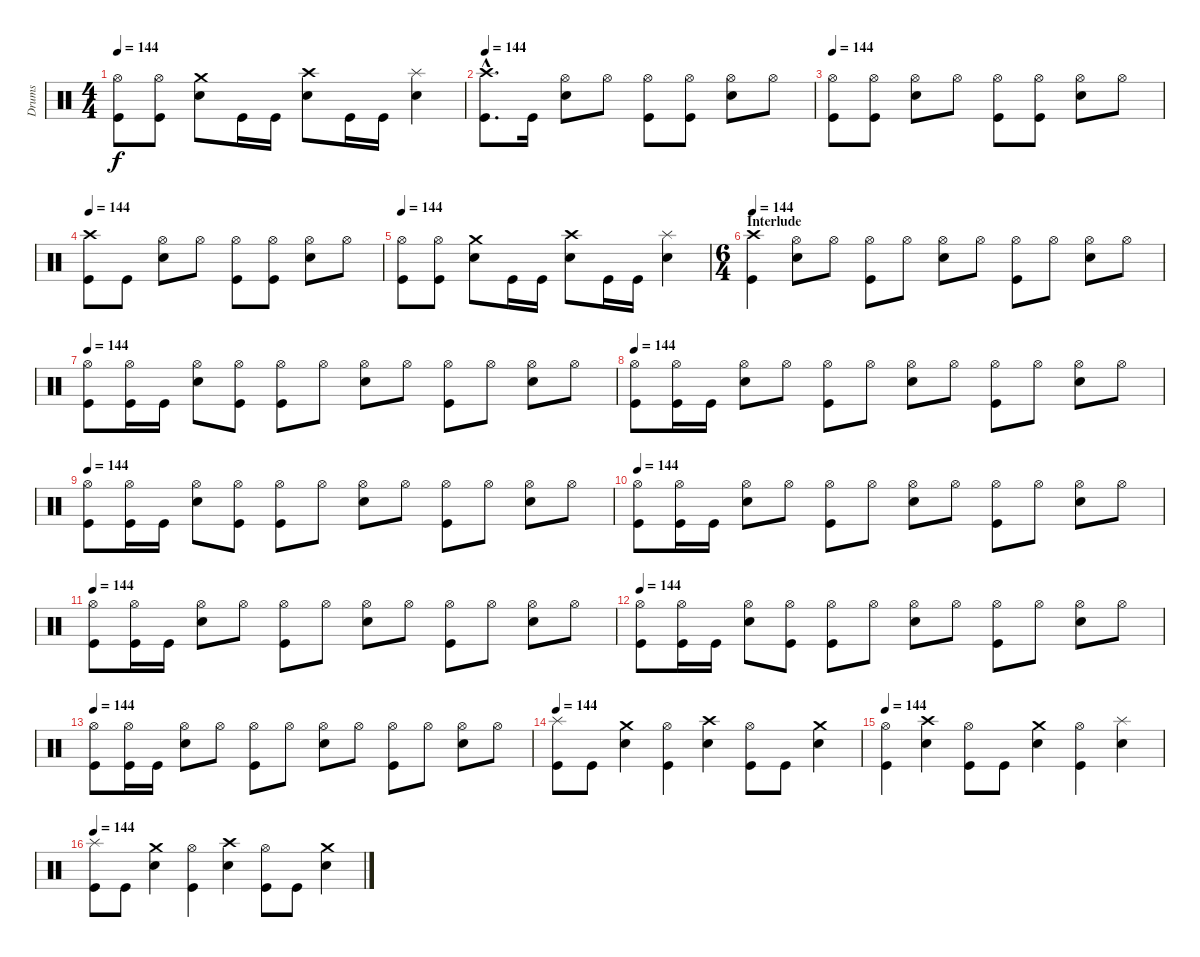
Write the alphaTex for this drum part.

\track ("Drums" "Drums") {instrument percussion}
\staff {score}
\articulation defaults
\ts (4 4)
\tempo 144
\clef neutral
\ks c
("Kick (hit)" "Hi-Hat (open)").8{dy f} ("Kick (hit)" "Hi-Hat (open)").8 ("Electric Snare (hit)" "Crash medium (hit)").8 "Kick (hit)".16 "Kick (hit)".16 ("Electric Snare (hit)" "Crash high (hit)").8 "Kick (hit)".16 "Kick (hit)".16 ("Electric Snare (hit)" "Splash (hit)").4 |
\tempo 144
("Kick (hit)"{hac} "Crash high (hit)"{hac}).8{d} "Kick (hit)".16 ("Electric Snare (hit)" "Hi-Hat (open)").8 "Hi-Hat (open)".8 ("Kick (hit)" "Hi-Hat (open)").8 ("Kick (hit)" "Hi-Hat (open)").8 ("Electric Snare (hit)" "Hi-Hat (open)").8 "Hi-Hat (open)".8 |
\tempo 144
("Kick (hit)" "Hi-Hat (open)").8 ("Kick (hit)" "Hi-Hat (open)").8 ("Electric Snare (hit)" "Hi-Hat (open)").8 "Hi-Hat (open)".8 ("Kick (hit)" "Hi-Hat (open)").8 ("Kick (hit)" "Hi-Hat (open)").8 ("Electric Snare (hit)" "Hi-Hat (open)").8 "Hi-Hat (open)".8 |
\tempo 144
("Kick (hit)" "Crash high (hit)").8 "Kick (hit)".8 ("Electric Snare (hit)" "Hi-Hat (open)").8 "Hi-Hat (open)".8 ("Kick (hit)" "Hi-Hat (open)").8 ("Kick (hit)" "Hi-Hat (open)").8 ("Electric Snare (hit)" "Hi-Hat (open)").8 "Hi-Hat (open)".8 |
\tempo 144
("Kick (hit)" "Hi-Hat (open)").8 ("Kick (hit)" "Hi-Hat (open)").8 ("Electric Snare (hit)" "Crash medium (hit)").8 "Kick (hit)".16 "Kick (hit)".16 ("Electric Snare (hit)" "Crash high (hit)").8 "Kick (hit)".16 "Kick (hit)".16 ("Electric Snare (hit)" "Splash (hit)").4 |
\ts (6 4)
\section ("" "Interlude")
\tempo 144
("Kick (hit)" "Crash high (hit)").4 ("Electric Snare (hit)" "Hi-Hat (open)").8 "Hi-Hat (open)".8 ("Kick (hit)" "Hi-Hat (open)").8 "Hi-Hat (open)".8 ("Electric Snare (hit)" "Hi-Hat (open)").8 "Hi-Hat (open)".8 ("Kick (hit)" "Hi-Hat (open)").8 "Hi-Hat (open)".8 ("Electric Snare (hit)" "Hi-Hat (open)").8 "Hi-Hat (open)".8 |
\tempo 144
("Kick (hit)" "Hi-Hat (open)").8 ("Kick (hit)" "Hi-Hat (open)").16 "Kick (hit)".16 ("Electric Snare (hit)" "Hi-Hat (open)").8 ("Kick (hit)" "Hi-Hat (open)").8 ("Kick (hit)" "Hi-Hat (open)").8 "Hi-Hat (open)".8 ("Electric Snare (hit)" "Hi-Hat (open)").8 "Hi-Hat (open)".8 ("Kick (hit)" "Hi-Hat (open)").8 "Hi-Hat (open)".8 ("Electric Snare (hit)" "Hi-Hat (open)").8 "Hi-Hat (open)".8 |
\tempo 144
("Kick (hit)" "Hi-Hat (open)").8 ("Kick (hit)" "Hi-Hat (open)").16 "Kick (hit)".16 ("Electric Snare (hit)" "Hi-Hat (open)").8 "Hi-Hat (open)".8 ("Kick (hit)" "Hi-Hat (open)").8 "Hi-Hat (open)".8 ("Electric Snare (hit)" "Hi-Hat (open)").8 "Hi-Hat (open)".8 ("Kick (hit)" "Hi-Hat (open)").8 "Hi-Hat (open)".8 ("Electric Snare (hit)" "Hi-Hat (open)").8 "Hi-Hat (open)".8 |
\tempo 144
("Kick (hit)" "Hi-Hat (open)").8 ("Kick (hit)" "Hi-Hat (open)").16 "Kick (hit)".16 ("Electric Snare (hit)" "Hi-Hat (open)").8 ("Kick (hit)" "Hi-Hat (open)").8 ("Kick (hit)" "Hi-Hat (open)").8 "Hi-Hat (open)".8 ("Electric Snare (hit)" "Hi-Hat (open)").8 "Hi-Hat (open)".8 ("Kick (hit)" "Hi-Hat (open)").8 "Hi-Hat (open)".8 ("Electric Snare (hit)" "Hi-Hat (open)").8 "Hi-Hat (open)".8 |
\tempo 144
("Kick (hit)" "Hi-Hat (open)").8 ("Kick (hit)" "Hi-Hat (open)").16 "Kick (hit)".16 ("Electric Snare (hit)" "Hi-Hat (open)").8 "Hi-Hat (open)".8 ("Kick (hit)" "Hi-Hat (open)").8 "Hi-Hat (open)".8 ("Electric Snare (hit)" "Hi-Hat (open)").8 "Hi-Hat (open)".8 ("Kick (hit)" "Hi-Hat (open)").8 "Hi-Hat (open)".8 ("Electric Snare (hit)" "Hi-Hat (open)").8 "Hi-Hat (open)".8 |
\tempo 144
("Kick (hit)" "Hi-Hat (open)").8 ("Kick (hit)" "Hi-Hat (open)").16 "Kick (hit)".16 ("Electric Snare (hit)" "Hi-Hat (open)").8 "Hi-Hat (open)".8 ("Kick (hit)" "Hi-Hat (open)").8 "Hi-Hat (open)".8 ("Electric Snare (hit)" "Hi-Hat (open)").8 "Hi-Hat (open)".8 ("Kick (hit)" "Hi-Hat (open)").8 "Hi-Hat (open)".8 ("Electric Snare (hit)" "Hi-Hat (open)").8 "Hi-Hat (open)".8 |
\tempo 144
("Kick (hit)" "Hi-Hat (open)").8 ("Kick (hit)" "Hi-Hat (open)").16 "Kick (hit)".16 ("Electric Snare (hit)" "Hi-Hat (open)").8 ("Kick (hit)" "Hi-Hat (open)").8 ("Kick (hit)" "Hi-Hat (open)").8 "Hi-Hat (open)".8 ("Electric Snare (hit)" "Hi-Hat (open)").8 "Hi-Hat (open)".8 ("Kick (hit)" "Hi-Hat (open)").8 "Hi-Hat (open)".8 ("Electric Snare (hit)" "Hi-Hat (open)").8 "Hi-Hat (open)".8 |
\tempo 144
("Kick (hit)" "Hi-Hat (open)").8 ("Kick (hit)" "Hi-Hat (open)").16 "Kick (hit)".16 ("Electric Snare (hit)" "Hi-Hat (open)").8 "Hi-Hat (open)".8 ("Kick (hit)" "Hi-Hat (open)").8 "Hi-Hat (open)".8 ("Electric Snare (hit)" "Hi-Hat (open)").8 "Hi-Hat (open)".8 ("Kick (hit)" "Hi-Hat (open)").8 "Hi-Hat (open)".8 ("Electric Snare (hit)" "Hi-Hat (open)").8 "Hi-Hat (open)".8 |
\tempo 144
("Kick (hit)" "Splash (hit)").8 "Kick (hit)".8 ("Electric Snare (hit)" "Crash medium (hit)").4 ("Kick (hit)" "Hi-Hat (open)").4 ("Electric Snare (hit)" "Crash high (hit)").4 ("Kick (hit)" "Hi-Hat (open)").8 "Kick (hit)".8 ("Electric Snare (hit)" "Crash medium (hit)").4 |
\tempo 144
("Kick (hit)" "Hi-Hat (open)").4 ("Electric Snare (hit)" "Crash high (hit)").4 ("Kick (hit)" "Hi-Hat (open)").8 "Kick (hit)".8 ("Electric Snare (hit)" "Crash medium (hit)").4 ("Kick (hit)" "Hi-Hat (open)").4 ("Electric Snare (hit)" "Splash (hit)").4 |
\tempo 144
("Kick (hit)" "Splash (hit)").8 "Kick (hit)".8 ("Electric Snare (hit)" "Crash medium (hit)").4 ("Kick (hit)" "Hi-Hat (open)").4 ("Electric Snare (hit)" "Crash high (hit)").4 ("Kick (hit)" "Hi-Hat (open)").8 "Kick (hit)".8 ("Electric Snare (hit)" "Crash medium (hit)").4
